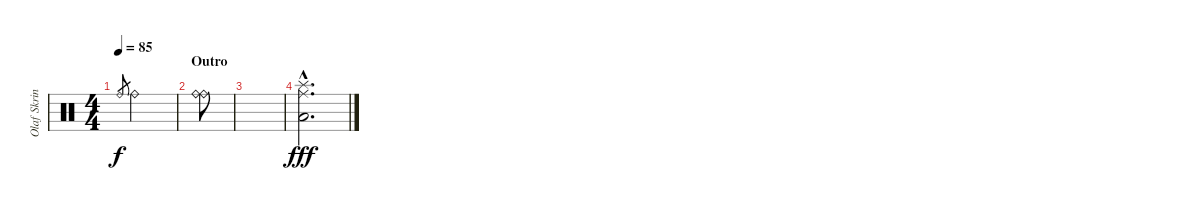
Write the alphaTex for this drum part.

\track ("Olaf Skrinde (Drums)" "Olaf Skrin") {instrument percussion}
\staff {score}
\articulation defaults
\ts (4 4)
\tempo 85
\clef neutral
\ks c "Ride (bell)".8{gr dy f} "Ride (bell)".2
|
\section ("" "Outro")
("Ride (bell)" "Ride (bell)").8 |
|
("Splash (hit)"{hac} "Ride (middle)"{hac} "Low Floor Tom (hit)"{hac}).2{d dy fff volume 1}
